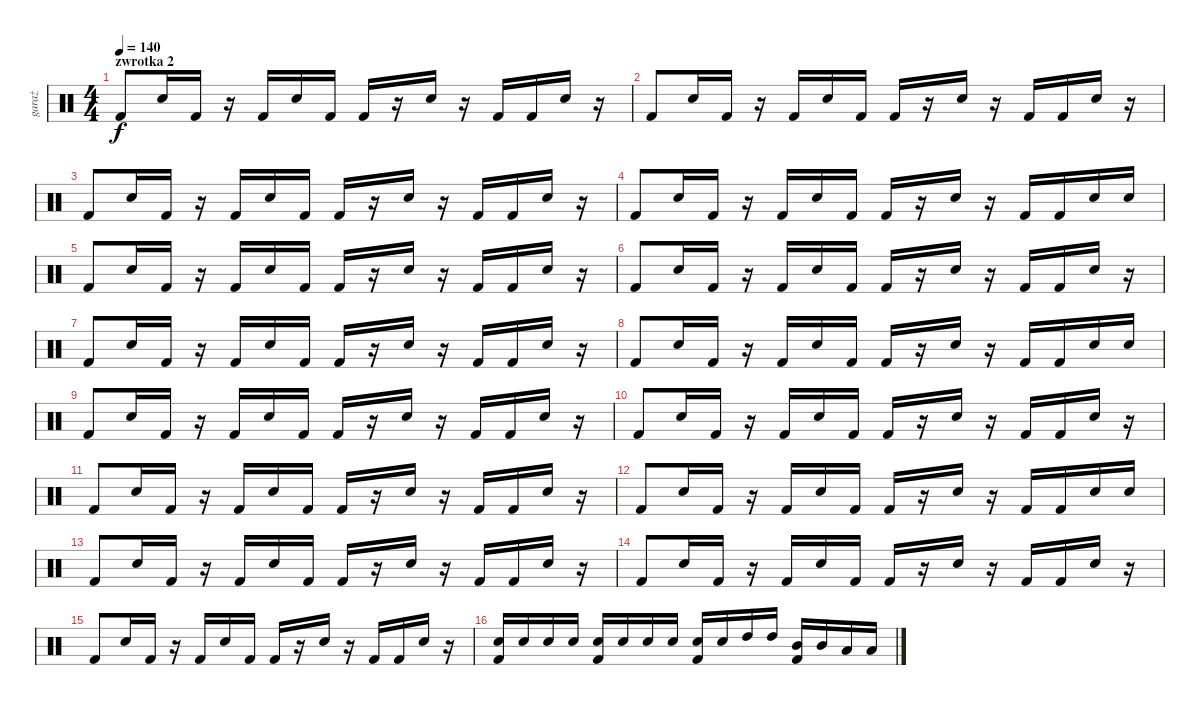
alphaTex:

\track ("garaż" "garaż") {instrument percussion}
\staff {score}
\articulation defaults
\ts (4 4)
\section ("" "zwrotka 2")
\tempo 140
\clef neutral
\ks c "Kick (hit) 2".8{dy f} "Snare (hit) 2".16 "Kick (hit) 2".16
r.16 "Kick (hit) 2".16 "Snare (hit) 2".16 "Kick (hit) 2".16 "Kick (hit) 2".16 r.16 "Snare (hit) 2".16 r.16 "Kick (hit) 2".16 "Kick (hit) 2".16 "Snare (hit) 2".16 r.16 |
"Kick (hit) 2".8 "Snare (hit) 2".16 "Kick (hit) 2".16 r.16 "Kick (hit) 2".16 "Snare (hit) 2".16 "Kick (hit) 2".16 "Kick (hit) 2".16 r.16 "Snare (hit) 2".16 r.16 "Kick (hit) 2".16 "Kick (hit) 2".16 "Snare (hit) 2".16 r.16 |
"Kick (hit) 2".8 "Snare (hit) 2".16 "Kick (hit) 2".16 r.16 "Kick (hit) 2".16 "Snare (hit) 2".16 "Kick (hit) 2".16 "Kick (hit) 2".16 r.16 "Snare (hit) 2".16 r.16 "Kick (hit) 2".16 "Kick (hit) 2".16 "Snare (hit) 2".16 r.16 |
"Kick (hit) 2".8 "Snare (hit) 2".16 "Kick (hit) 2".16 r.16 "Kick (hit) 2".16 "Snare (hit) 2".16 "Kick (hit) 2".16 "Kick (hit) 2".16 r.16 "Snare (hit) 2".16 r.16 "Kick (hit) 2".16 "Kick (hit) 2".16 "Snare (hit) 2".16 "Snare (hit) 2".16 |
"Kick (hit) 2".8 "Snare (hit) 2".16 "Kick (hit) 2".16 r.16 "Kick (hit) 2".16 "Snare (hit) 2".16 "Kick (hit) 2".16 "Kick (hit) 2".16 r.16 "Snare (hit) 2".16 r.16 "Kick (hit) 2".16 "Kick (hit) 2".16 "Snare (hit) 2".16 r.16 |
"Kick (hit) 2".8 "Snare (hit) 2".16 "Kick (hit) 2".16 r.16 "Kick (hit) 2".16 "Snare (hit) 2".16 "Kick (hit) 2".16 "Kick (hit) 2".16 r.16 "Snare (hit) 2".16 r.16 "Kick (hit) 2".16 "Kick (hit) 2".16 "Snare (hit) 2".16 r.16 |
"Kick (hit) 2".8 "Snare (hit) 2".16 "Kick (hit) 2".16 r.16 "Kick (hit) 2".16 "Snare (hit) 2".16 "Kick (hit) 2".16 "Kick (hit) 2".16 r.16 "Snare (hit) 2".16 r.16 "Kick (hit) 2".16 "Kick (hit) 2".16 "Snare (hit) 2".16 r.16 |
"Kick (hit) 2".8 "Snare (hit) 2".16 "Kick (hit) 2".16 r.16 "Kick (hit) 2".16 "Snare (hit) 2".16 "Kick (hit) 2".16 "Kick (hit) 2".16 r.16 "Snare (hit) 2".16 r.16 "Kick (hit) 2".16 "Kick (hit) 2".16 "Snare (hit) 2".16 "Snare (hit) 2".16 |
"Kick (hit) 2".8 "Snare (hit) 2".16 "Kick (hit) 2".16 r.16 "Kick (hit) 2".16 "Snare (hit) 2".16 "Kick (hit) 2".16 "Kick (hit) 2".16 r.16 "Snare (hit) 2".16 r.16 "Kick (hit) 2".16 "Kick (hit) 2".16 "Snare (hit) 2".16 r.16 |
"Kick (hit) 2".8 "Snare (hit) 2".16 "Kick (hit) 2".16 r.16 "Kick (hit) 2".16 "Snare (hit) 2".16 "Kick (hit) 2".16 "Kick (hit) 2".16 r.16 "Snare (hit) 2".16 r.16 "Kick (hit) 2".16 "Kick (hit) 2".16 "Snare (hit) 2".16 r.16 |
"Kick (hit) 2".8 "Snare (hit) 2".16 "Kick (hit) 2".16 r.16 "Kick (hit) 2".16 "Snare (hit) 2".16 "Kick (hit) 2".16 "Kick (hit) 2".16 r.16 "Snare (hit) 2".16 r.16 "Kick (hit) 2".16 "Kick (hit) 2".16 "Snare (hit) 2".16 r.16 |
"Kick (hit) 2".8 "Snare (hit) 2".16 "Kick (hit) 2".16 r.16 "Kick (hit) 2".16 "Snare (hit) 2".16 "Kick (hit) 2".16 "Kick (hit) 2".16 r.16 "Snare (hit) 2".16 r.16 "Kick (hit) 2".16 "Kick (hit) 2".16 "Snare (hit) 2".16 "Snare (hit) 2".16 |
"Kick (hit) 2".8 "Snare (hit) 2".16 "Kick (hit) 2".16 r.16 "Kick (hit) 2".16 "Snare (hit) 2".16 "Kick (hit) 2".16 "Kick (hit) 2".16 r.16 "Snare (hit) 2".16 r.16 "Kick (hit) 2".16 "Kick (hit) 2".16 "Snare (hit) 2".16 r.16 |
"Kick (hit) 2".8 "Snare (hit) 2".16 "Kick (hit) 2".16 r.16 "Kick (hit) 2".16 "Snare (hit) 2".16 "Kick (hit) 2".16 "Kick (hit) 2".16 r.16 "Snare (hit) 2".16 r.16 "Kick (hit) 2".16 "Kick (hit) 2".16 "Snare (hit) 2".16 r.16 |
"Kick (hit) 2".8 "Snare (hit) 2".16 "Kick (hit) 2".16 r.16 "Kick (hit) 2".16 "Snare (hit) 2".16 "Kick (hit) 2".16 "Kick (hit) 2".16 r.16 "Snare (hit) 2".16 r.16 "Kick (hit) 2".16 "Kick (hit) 2".16 "Snare (hit) 2".16 r.16 |
("Snare (hit) 2" "Kick (hit) 2").16 "Snare (hit) 2".16 "Snare (hit) 2".16 "Snare (hit) 2".16 ("Snare (hit) 2" "Kick (hit) 2").16 "Snare (hit) 2".16 "Snare (hit) 2".16 "Snare (hit) 2".16 ("Snare (hit) 2" "Kick (hit) 2").16 "Snare (hit) 2".16 "High Tom (hit)".16 "High Tom (hit)".16 ("Mid Tom (hit)" "Kick (hit) 2").16 "Mid Tom (hit)".16 "Low Tom (hit)".16 "Low Tom (hit)".16
